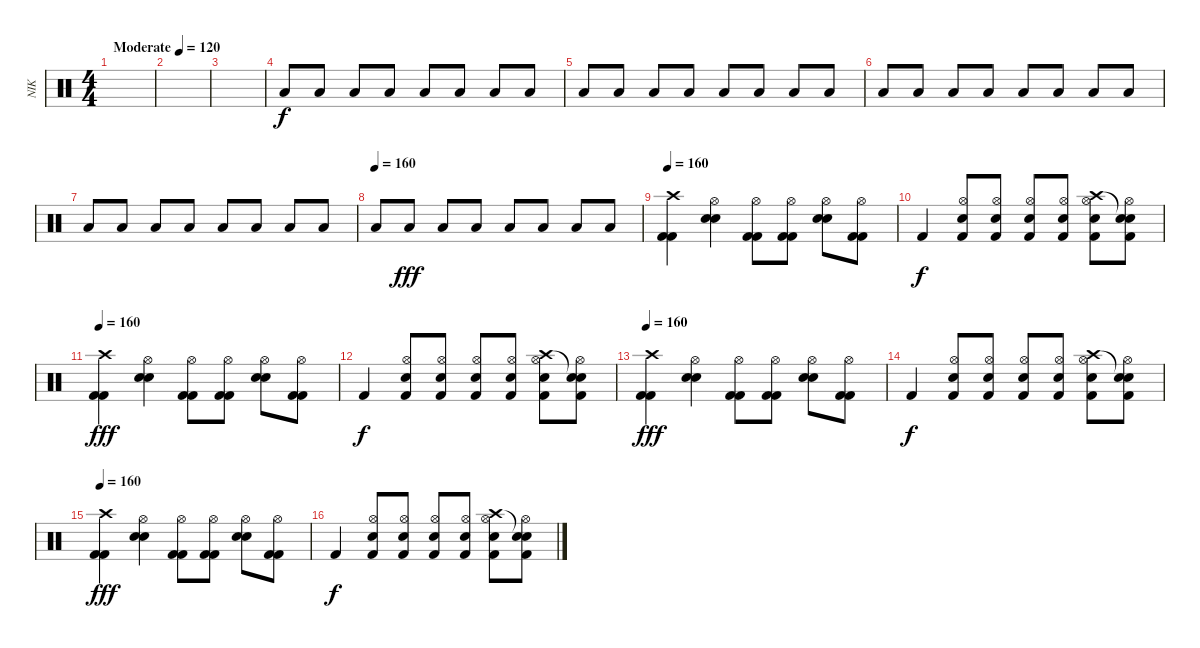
\track ("NIK" "NIK") {instrument percussion}
\staff {score}
\articulation defaults
\ts (4 4)
\tempo (120 "Moderate")
\clef neutral
\ks c
|
|
|
"Low Floor Tom (hit)".8{volume 16} "Low Floor Tom (hit)".8 "Low Floor Tom (hit)".8 "Low Floor Tom (hit)".8 "Low Floor Tom (hit)".8 "Low Floor Tom (hit)".8 "Low Floor Tom (hit)".8 "Low Floor Tom (hit)".8 |
"Low Floor Tom (hit)".8 "Low Floor Tom (hit)".8 "Low Floor Tom (hit)".8 "Low Floor Tom (hit)".8 "Low Floor Tom (hit)".8 "Low Floor Tom (hit)".8 "Low Floor Tom (hit)".8 "Low Floor Tom (hit)".8 |
"Low Floor Tom (hit)".8 "Low Floor Tom (hit)".8 "Low Floor Tom (hit)".8 "Low Floor Tom (hit)".8 "Low Floor Tom (hit)".8 "Low Floor Tom (hit)".8 "Low Floor Tom (hit)".8 "Low Floor Tom (hit)".8 |
"Low Floor Tom (hit)".8 "Low Floor Tom (hit)".8 "Low Floor Tom (hit)".8 "Low Floor Tom (hit)".8 "Low Floor Tom (hit)".8 "Low Floor Tom (hit)".8 "Low Floor Tom (hit)".8 "Low Floor Tom (hit)".8 |
\tempo (160)
"Low Floor Tom (hit)".8{dy f} "Low Floor Tom (hit)".8{dy fff} "Low Floor Tom (hit)".8 "Low Floor Tom (hit)".8 "Low Floor Tom (hit)".8 "Low Floor Tom (hit)".8 "Low Floor Tom (hit)".8 "Low Floor Tom (hit)".8 |
\tempo 160
("Crash high (hit)" "Kick (hit) 2" "Kick (hit) 2").4 ("Hi-Hat (open)" "Electric Snare (hit)" "Electric Snare (hit)").4 ("Hi-Hat (open)" "Kick (hit) 2" "Kick (hit) 2").8 ("Hi-Hat (open)" "Kick (hit) 2" "Kick (hit) 2").8 ("Hi-Hat (open)" "Electric Snare (hit)" "Electric Snare (hit)").8 ("Hi-Hat (open)" "Kick (hit) 2" "Kick (hit) 2").8 |
"Kick (hit) 2".4{dy f} ("Electric Snare (hit)" "Hi-Hat (open)" "Kick (hit) 2").8 ("Electric Snare (hit)" "Hi-Hat (open)" "Kick (hit) 2").8 ("Electric Snare (hit)" "Hi-Hat (open)" "Kick (hit) 2").8 ("Electric Snare (hit)" "Hi-Hat (open)" "Kick (hit) 2").8 ("Electric Snare (hit)" "Hi-Hat (open)" "Kick (hit) 2" "Crash high (hit)").8 ("Electric Snare (hit)" "Hi-Hat (open)" "Kick (hit) 2" "Snare (hit)"{t}).8 |
\tempo 160
("Crash high (hit)" "Kick (hit) 2" "Kick (hit) 2").4{dy fff} ("Hi-Hat (open)" "Electric Snare (hit)" "Electric Snare (hit)").4 ("Hi-Hat (open)" "Kick (hit) 2" "Kick (hit) 2").8 ("Hi-Hat (open)" "Kick (hit) 2" "Kick (hit) 2").8 ("Hi-Hat (open)" "Electric Snare (hit)" "Electric Snare (hit)").8 ("Hi-Hat (open)" "Kick (hit) 2" "Kick (hit) 2").8 |
"Kick (hit) 2".4{dy f} ("Electric Snare (hit)" "Hi-Hat (open)" "Kick (hit) 2").8 ("Electric Snare (hit)" "Hi-Hat (open)" "Kick (hit) 2").8 ("Electric Snare (hit)" "Hi-Hat (open)" "Kick (hit) 2").8 ("Electric Snare (hit)" "Hi-Hat (open)" "Kick (hit) 2").8 ("Electric Snare (hit)" "Hi-Hat (open)" "Kick (hit) 2" "Crash high (hit)").8 ("Electric Snare (hit)" "Hi-Hat (open)" "Kick (hit) 2" "Snare (hit)"{t}).8 |
\tempo 160
("Crash high (hit)" "Kick (hit) 2" "Kick (hit) 2").4{dy fff} ("Hi-Hat (open)" "Electric Snare (hit)" "Electric Snare (hit)").4 ("Hi-Hat (open)" "Kick (hit) 2" "Kick (hit) 2").8 ("Hi-Hat (open)" "Kick (hit) 2" "Kick (hit) 2").8 ("Hi-Hat (open)" "Electric Snare (hit)" "Electric Snare (hit)").8 ("Hi-Hat (open)" "Kick (hit) 2" "Kick (hit) 2").8 |
"Kick (hit) 2".4{dy f} ("Electric Snare (hit)" "Hi-Hat (open)" "Kick (hit) 2").8 ("Electric Snare (hit)" "Hi-Hat (open)" "Kick (hit) 2").8 ("Electric Snare (hit)" "Hi-Hat (open)" "Kick (hit) 2").8 ("Electric Snare (hit)" "Hi-Hat (open)" "Kick (hit) 2").8 ("Electric Snare (hit)" "Hi-Hat (open)" "Kick (hit) 2" "Crash high (hit)").8 ("Electric Snare (hit)" "Hi-Hat (open)" "Kick (hit) 2" "Snare (hit)"{t}).8 |
\tempo 160
("Crash high (hit)" "Kick (hit) 2" "Kick (hit) 2").4{dy fff} ("Hi-Hat (open)" "Electric Snare (hit)" "Electric Snare (hit)").4 ("Hi-Hat (open)" "Kick (hit) 2" "Kick (hit) 2").8 ("Hi-Hat (open)" "Kick (hit) 2" "Kick (hit) 2").8 ("Hi-Hat (open)" "Electric Snare (hit)" "Electric Snare (hit)").8 ("Hi-Hat (open)" "Kick (hit) 2" "Kick (hit) 2").8 |
"Kick (hit) 2".4{dy f} ("Electric Snare (hit)" "Hi-Hat (open)" "Kick (hit) 2").8 ("Electric Snare (hit)" "Hi-Hat (open)" "Kick (hit) 2").8 ("Electric Snare (hit)" "Hi-Hat (open)" "Kick (hit) 2").8 ("Electric Snare (hit)" "Hi-Hat (open)" "Kick (hit) 2").8 ("Electric Snare (hit)" "Hi-Hat (open)" "Kick (hit) 2" "Crash high (hit)").8 ("Electric Snare (hit)" "Hi-Hat (open)" "Kick (hit) 2" "Snare (hit)"{t}).8
